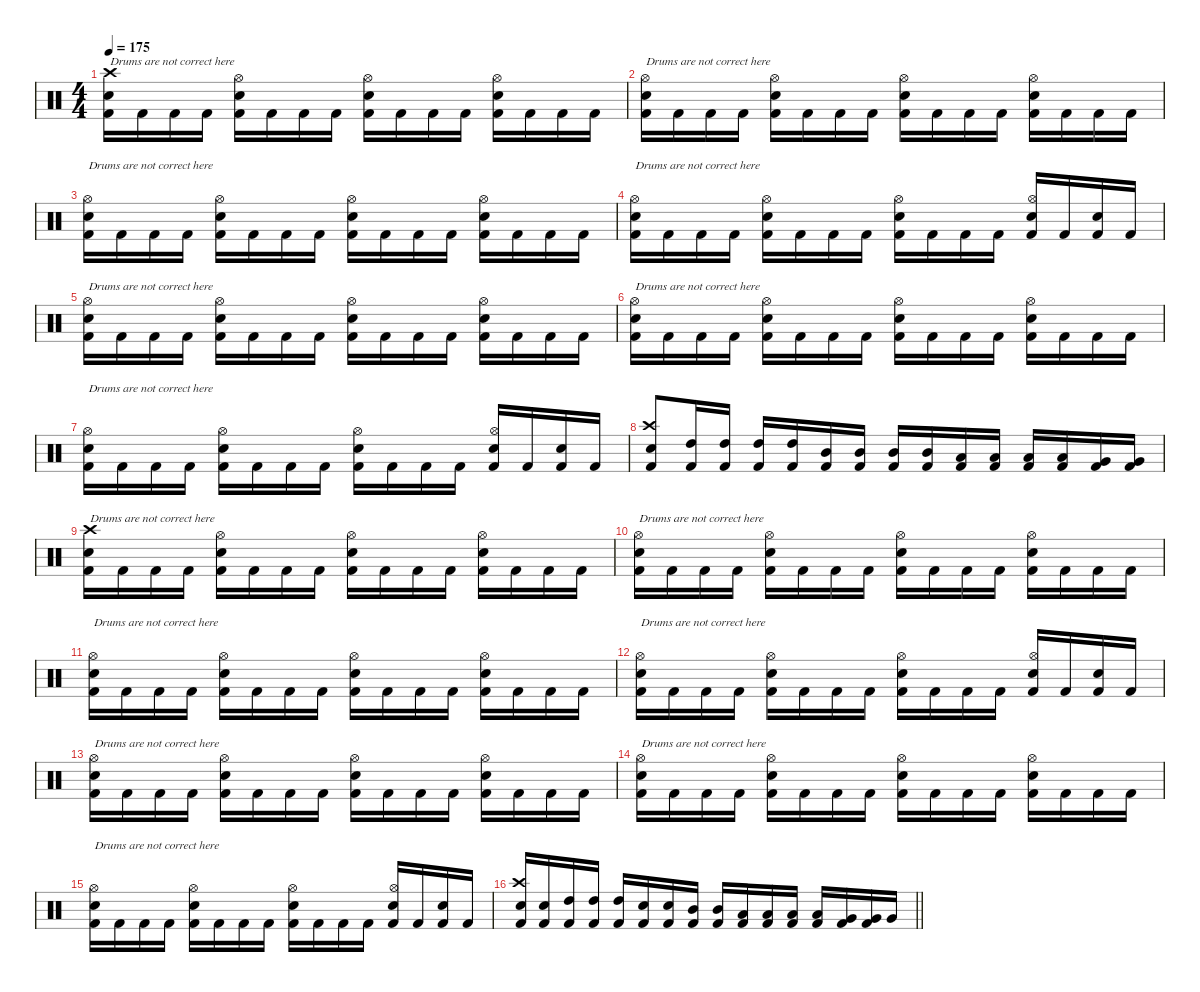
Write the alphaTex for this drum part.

\defaultSystemsLayout 4
\hideDynamics
\bracketExtendMode nobrackets
\singleTrackTrackNamePolicy hidden
\multiTrackTrackNamePolicy hidden
\firstSystemTrackNameMode fullname
\firstSystemTrackNameOrientation horizontal
\otherSystemsTrackNameOrientation horizontal
\track ("Fredrik Andersson" "drm.") {instrument percussion}
\staff {score}
\articulation defaults
\ts (4 4)
\tempo 175
\clef neutral
\ks c
("Crash high (hit)" "Snare (hit) 2" "Kick (hit) 2").16{txt "Drums are not correct here" dy f beam Down} "Kick (hit) 2".16{beam Down} "Kick (hit) 2".16{beam Down} "Kick (hit) 2".16{beam Down} ("Hi-Hat (open)" "Snare (hit) 2" "Kick (hit) 2").16{beam Down} "Kick (hit) 2".16{beam Down} "Kick (hit) 2".16{beam Down} "Kick (hit) 2".16{beam Down} ("Hi-Hat (open)" "Snare (hit) 2" "Kick (hit) 2").16{beam Down} "Kick (hit) 2".16{beam Down} "Kick (hit) 2".16{beam Down} "Kick (hit) 2".16{beam Down} ("Hi-Hat (open)" "Snare (hit) 2" "Kick (hit) 2").16{beam Down} "Kick (hit) 2".16{beam Down} "Kick (hit) 2".16{beam Down} "Kick (hit) 2".16{beam Down} |
("Hi-Hat (open)" "Snare (hit) 2" "Kick (hit) 2").16{txt "Drums are not correct here" beam Down} "Kick (hit) 2".16{beam Down} "Kick (hit) 2".16{beam Down} "Kick (hit) 2".16{beam Down} ("Hi-Hat (open)" "Snare (hit) 2" "Kick (hit) 2").16{beam Down} "Kick (hit) 2".16{beam Down} "Kick (hit) 2".16{beam Down} "Kick (hit) 2".16{beam Down} ("Hi-Hat (open)" "Snare (hit) 2" "Kick (hit) 2").16{beam Down} "Kick (hit) 2".16{beam Down} "Kick (hit) 2".16{beam Down} "Kick (hit) 2".16{beam Down} ("Hi-Hat (open)" "Snare (hit) 2" "Kick (hit) 2").16{beam Down} "Kick (hit) 2".16{beam Down} "Kick (hit) 2".16{beam Down} "Kick (hit) 2".16{beam Down} |
("Hi-Hat (open)" "Snare (hit) 2" "Kick (hit) 2").16{txt "Drums are not correct here" beam Down} "Kick (hit) 2".16{beam Down} "Kick (hit) 2".16{beam Down} "Kick (hit) 2".16{beam Down} ("Hi-Hat (open)" "Snare (hit) 2" "Kick (hit) 2").16{beam Down} "Kick (hit) 2".16{beam Down} "Kick (hit) 2".16{beam Down} "Kick (hit) 2".16{beam Down} ("Hi-Hat (open)" "Snare (hit) 2" "Kick (hit) 2").16{beam Down} "Kick (hit) 2".16{beam Down} "Kick (hit) 2".16{beam Down} "Kick (hit) 2".16{beam Down} ("Hi-Hat (open)" "Snare (hit) 2" "Kick (hit) 2").16{beam Down} "Kick (hit) 2".16{beam Down} "Kick (hit) 2".16{beam Down} "Kick (hit) 2".16{beam Down} |
("Hi-Hat (open)" "Snare (hit) 2" "Kick (hit) 2").16{txt "Drums are not correct here" beam Down} "Kick (hit) 2".16{beam Down} "Kick (hit) 2".16{beam Down} "Kick (hit) 2".16{beam Down} ("Hi-Hat (open)" "Snare (hit) 2" "Kick (hit) 2").16{beam Down} "Kick (hit) 2".16{beam Down} "Kick (hit) 2".16{beam Down} "Kick (hit) 2".16{beam Down} ("Hi-Hat (open)" "Snare (hit) 2" "Kick (hit) 2").16{beam Down} "Kick (hit) 2".16{beam Down} "Kick (hit) 2".16{beam Down} "Kick (hit) 2".16{beam Down} ("Hi-Hat (open)" "Snare (hit) 2" "Kick (hit) 2").16{beam Up} "Kick (hit) 2".16{beam Up} ("Snare (hit) 2" "Kick (hit) 2").16{beam Up} "Kick (hit) 2".16{beam Up} |
("Hi-Hat (open)" "Snare (hit) 2" "Kick (hit) 2").16{txt "Drums are not correct here" beam Down} "Kick (hit) 2".16{beam Down} "Kick (hit) 2".16{beam Down} "Kick (hit) 2".16{beam Down} ("Hi-Hat (open)" "Snare (hit) 2" "Kick (hit) 2").16{beam Down} "Kick (hit) 2".16{beam Down} "Kick (hit) 2".16{beam Down} "Kick (hit) 2".16{beam Down} ("Hi-Hat (open)" "Snare (hit) 2" "Kick (hit) 2").16{beam Down} "Kick (hit) 2".16{beam Down} "Kick (hit) 2".16{beam Down} "Kick (hit) 2".16{beam Down} ("Hi-Hat (open)" "Snare (hit) 2" "Kick (hit) 2").16{beam Down} "Kick (hit) 2".16{beam Down} "Kick (hit) 2".16{beam Down} "Kick (hit) 2".16{beam Down} |
("Hi-Hat (open)" "Snare (hit) 2" "Kick (hit) 2").16{txt "Drums are not correct here" beam Down} "Kick (hit) 2".16{beam Down} "Kick (hit) 2".16{beam Down} "Kick (hit) 2".16{beam Down} ("Hi-Hat (open)" "Snare (hit) 2" "Kick (hit) 2").16{beam Down} "Kick (hit) 2".16{beam Down} "Kick (hit) 2".16{beam Down} "Kick (hit) 2".16{beam Down} ("Hi-Hat (open)" "Snare (hit) 2" "Kick (hit) 2").16{beam Down} "Kick (hit) 2".16{beam Down} "Kick (hit) 2".16{beam Down} "Kick (hit) 2".16{beam Down} ("Hi-Hat (open)" "Snare (hit) 2" "Kick (hit) 2").16{beam Down} "Kick (hit) 2".16{beam Down} "Kick (hit) 2".16{beam Down} "Kick (hit) 2".16{beam Down} |
("Hi-Hat (open)" "Snare (hit) 2" "Kick (hit) 2").16{txt "Drums are not correct here" beam Down} "Kick (hit) 2".16{beam Down} "Kick (hit) 2".16{beam Down} "Kick (hit) 2".16{beam Down} ("Hi-Hat (open)" "Snare (hit) 2" "Kick (hit) 2").16{beam Down} "Kick (hit) 2".16{beam Down} "Kick (hit) 2".16{beam Down} "Kick (hit) 2".16{beam Down} ("Hi-Hat (open)" "Snare (hit) 2" "Kick (hit) 2").16{beam Down} "Kick (hit) 2".16{beam Down} "Kick (hit) 2".16{beam Down} "Kick (hit) 2".16{beam Down} ("Hi-Hat (open)" "Snare (hit) 2" "Kick (hit) 2").16{beam Up} "Kick (hit) 2".16{beam Up} ("Snare (hit) 2" "Kick (hit) 2").16{beam Up} "Kick (hit) 2".16{beam Up} |
("Crash high (hit)" "Snare (hit) 2" "Kick (hit) 2").8{beam Up} ("High Tom (hit)" "Kick (hit) 2").16{beam Up} ("High Tom (hit)" "Kick (hit) 2").16{beam Up} ("High Tom (hit)" "Kick (hit) 2").16{beam Up} ("High Tom (hit)" "Kick (hit) 2").16{beam Up} ("Mid Tom (hit)" "Kick (hit) 2").16{beam Up} ("Mid Tom (hit)" "Kick (hit) 2").16{beam Up} ("Mid Tom (hit)" "Kick (hit) 2").16{beam Up} ("Mid Tom (hit)" "Kick (hit) 2").16{beam Up} ("Low Tom (hit)" "Kick (hit) 2").16{beam Up} ("Low Tom (hit)" "Kick (hit) 2").16{beam Up} ("Low Tom (hit)" "Kick (hit) 2").16{beam Up} ("Low Tom (hit)" "Kick (hit) 2").16{beam Up} ("Very Low Tom (hit)" "Kick (hit) 2").16{beam Up} ("Very Low Tom (hit)" "Kick (hit) 2").16{beam Up} |
("Crash high (hit)" "Snare (hit) 2" "Kick (hit) 2").16{txt "Drums are not correct here" beam Down} "Kick (hit) 2".16{beam Down} "Kick (hit) 2".16{beam Down} "Kick (hit) 2".16{beam Down} ("Hi-Hat (open)" "Snare (hit) 2" "Kick (hit) 2").16{beam Down} "Kick (hit) 2".16{beam Down} "Kick (hit) 2".16{beam Down} "Kick (hit) 2".16{beam Down} ("Hi-Hat (open)" "Snare (hit) 2" "Kick (hit) 2").16{beam Down} "Kick (hit) 2".16{beam Down} "Kick (hit) 2".16{beam Down} "Kick (hit) 2".16{beam Down} ("Hi-Hat (open)" "Snare (hit) 2" "Kick (hit) 2").16{beam Down} "Kick (hit) 2".16{beam Down} "Kick (hit) 2".16{beam Down} "Kick (hit) 2".16{beam Down} |
("Hi-Hat (open)" "Snare (hit) 2" "Kick (hit) 2").16{txt "Drums are not correct here" beam Down} "Kick (hit) 2".16{beam Down} "Kick (hit) 2".16{beam Down} "Kick (hit) 2".16{beam Down} ("Hi-Hat (open)" "Snare (hit) 2" "Kick (hit) 2").16{beam Down} "Kick (hit) 2".16{beam Down} "Kick (hit) 2".16{beam Down} "Kick (hit) 2".16{beam Down} ("Hi-Hat (open)" "Snare (hit) 2" "Kick (hit) 2").16{beam Down} "Kick (hit) 2".16{beam Down} "Kick (hit) 2".16{beam Down} "Kick (hit) 2".16{beam Down} ("Hi-Hat (open)" "Snare (hit) 2" "Kick (hit) 2").16{beam Down} "Kick (hit) 2".16{beam Down} "Kick (hit) 2".16{beam Down} "Kick (hit) 2".16{beam Down} |
("Hi-Hat (open)" "Snare (hit) 2" "Kick (hit) 2").16{txt "Drums are not correct here" beam Down} "Kick (hit) 2".16{beam Down} "Kick (hit) 2".16{beam Down} "Kick (hit) 2".16{beam Down} ("Hi-Hat (open)" "Snare (hit) 2" "Kick (hit) 2").16{beam Down} "Kick (hit) 2".16{beam Down} "Kick (hit) 2".16{beam Down} "Kick (hit) 2".16{beam Down} ("Hi-Hat (open)" "Snare (hit) 2" "Kick (hit) 2").16{beam Down} "Kick (hit) 2".16{beam Down} "Kick (hit) 2".16{beam Down} "Kick (hit) 2".16{beam Down} ("Hi-Hat (open)" "Snare (hit) 2" "Kick (hit) 2").16{beam Down} "Kick (hit) 2".16{beam Down} "Kick (hit) 2".16{beam Down} "Kick (hit) 2".16{beam Down} |
("Hi-Hat (open)" "Snare (hit) 2" "Kick (hit) 2").16{txt "Drums are not correct here" beam Down} "Kick (hit) 2".16{beam Down} "Kick (hit) 2".16{beam Down} "Kick (hit) 2".16{beam Down} ("Hi-Hat (open)" "Snare (hit) 2" "Kick (hit) 2").16{beam Down} "Kick (hit) 2".16{beam Down} "Kick (hit) 2".16{beam Down} "Kick (hit) 2".16{beam Down} ("Hi-Hat (open)" "Snare (hit) 2" "Kick (hit) 2").16{beam Down} "Kick (hit) 2".16{beam Down} "Kick (hit) 2".16{beam Down} "Kick (hit) 2".16{beam Down} ("Hi-Hat (open)" "Snare (hit) 2" "Kick (hit) 2").16{beam Up} "Kick (hit) 2".16{beam Up} ("Snare (hit) 2" "Kick (hit) 2").16{beam Up} "Kick (hit) 2".16{beam Up} |
("Hi-Hat (open)" "Snare (hit) 2" "Kick (hit) 2").16{txt "Drums are not correct here" beam Down} "Kick (hit) 2".16{beam Down} "Kick (hit) 2".16{beam Down} "Kick (hit) 2".16{beam Down} ("Hi-Hat (open)" "Snare (hit) 2" "Kick (hit) 2").16{beam Down} "Kick (hit) 2".16{beam Down} "Kick (hit) 2".16{beam Down} "Kick (hit) 2".16{beam Down} ("Hi-Hat (open)" "Snare (hit) 2" "Kick (hit) 2").16{beam Down} "Kick (hit) 2".16{beam Down} "Kick (hit) 2".16{beam Down} "Kick (hit) 2".16{beam Down} ("Hi-Hat (open)" "Snare (hit) 2" "Kick (hit) 2").16{beam Down} "Kick (hit) 2".16{beam Down} "Kick (hit) 2".16{beam Down} "Kick (hit) 2".16{beam Down} |
("Hi-Hat (open)" "Snare (hit) 2" "Kick (hit) 2").16{txt "Drums are not correct here" beam Down} "Kick (hit) 2".16{beam Down} "Kick (hit) 2".16{beam Down} "Kick (hit) 2".16{beam Down} ("Hi-Hat (open)" "Snare (hit) 2" "Kick (hit) 2").16{beam Down} "Kick (hit) 2".16{beam Down} "Kick (hit) 2".16{beam Down} "Kick (hit) 2".16{beam Down} ("Hi-Hat (open)" "Snare (hit) 2" "Kick (hit) 2").16{beam Down} "Kick (hit) 2".16{beam Down} "Kick (hit) 2".16{beam Down} "Kick (hit) 2".16{beam Down} ("Hi-Hat (open)" "Snare (hit) 2" "Kick (hit) 2").16{beam Down} "Kick (hit) 2".16{beam Down} "Kick (hit) 2".16{beam Down} "Kick (hit) 2".16{beam Down} |
("Hi-Hat (open)" "Snare (hit) 2" "Kick (hit) 2").16{txt "Drums are not correct here" beam Down} "Kick (hit) 2".16{beam Down} "Kick (hit) 2".16{beam Down} "Kick (hit) 2".16{beam Down} ("Hi-Hat (open)" "Snare (hit) 2" "Kick (hit) 2").16{beam Down} "Kick (hit) 2".16{beam Down} "Kick (hit) 2".16{beam Down} "Kick (hit) 2".16{beam Down} ("Hi-Hat (open)" "Snare (hit) 2" "Kick (hit) 2").16{beam Down} "Kick (hit) 2".16{beam Down} "Kick (hit) 2".16{beam Down} "Kick (hit) 2".16{beam Down} ("Hi-Hat (open)" "Snare (hit) 2" "Kick (hit) 2").16{beam Up} "Kick (hit) 2".16{beam Up} ("Snare (hit) 2" "Kick (hit) 2").16{beam Up} "Kick (hit) 2".16{beam Up} |
\barLineRight lightlight
("Crash high (hit)" "Snare (hit) 2" "Kick (hit) 2").16{beam Up} ("Snare (hit) 2" "Kick (hit) 2").16{beam Up} ("High Tom (hit)" "Kick (hit) 2").16{beam Up} ("High Tom (hit)" "Kick (hit) 2").16{beam Up} ("High Tom (hit)" "Kick (hit) 2").16{beam Up} ("Snare (hit) 2" "Kick (hit) 2").16{beam Up} ("Snare (hit) 2" "Kick (hit) 2").16{beam Up} ("Mid Tom (hit)" "Kick (hit) 2").16{beam Up} ("Mid Tom (hit)" "Kick (hit) 2").16{beam Up} ("Low Tom (hit)" "Kick (hit) 2").16{beam Up} ("Low Tom (hit)" "Kick (hit) 2").16{beam Up} ("Low Tom (hit)" "Kick (hit) 2").16{beam Up} ("Low Tom (hit)" "Kick (hit) 2").16{beam Up} ("Very Low Tom (hit)" "Kick (hit) 2").16{beam Up} ("Very Low Tom (hit)" "Kick (hit) 2").16{beam Up} "Very Low Tom (hit)".16{beam Up}
